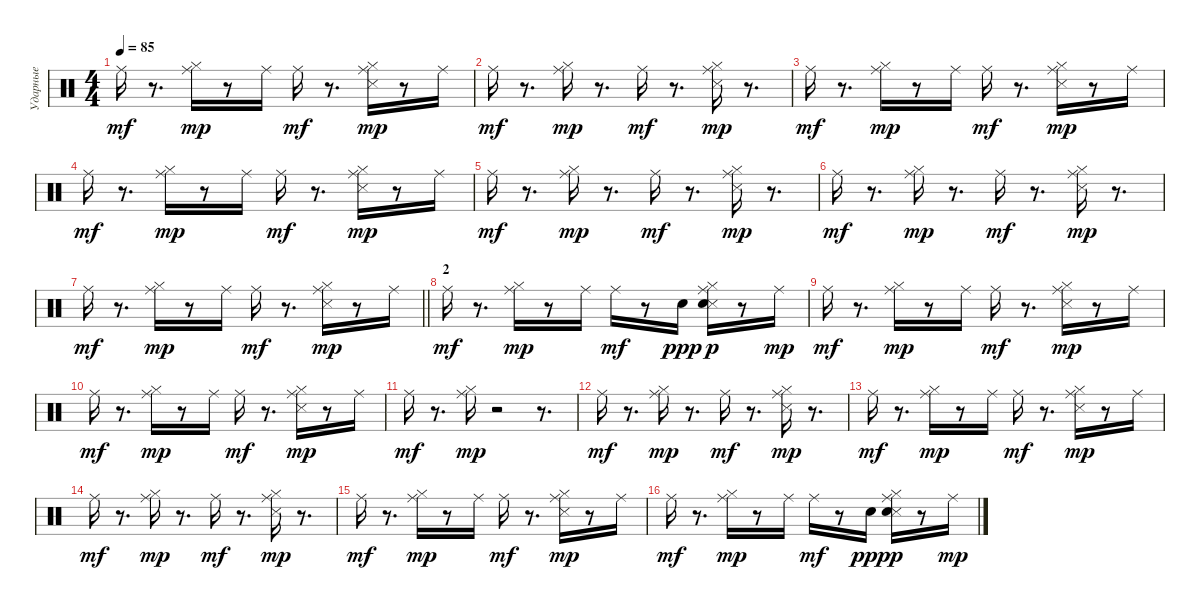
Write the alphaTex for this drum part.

\track ("Ударные" "Ударные") {instrument percussion}
\staff {score}
\articulation defaults
\ts (4 4)
\tempo 85
\clef neutral
\ks c "Ride (middle)".16{dy mf}
r.8{d} ("Ride (middle)" "Hi-Hat (closed)").16{dy mp} r.8 "Ride (middle)".16 "Ride (middle)".16{dy mf} r.8{d} ("Ride (middle)" "Snare (side stick) 3" "Hi-Hat (closed)").16{dy mp} r.8 "Ride (middle)".16 |
"Ride (middle)".16{dy mf} r.8{d} ("Ride (middle)" "Hi-Hat (closed)").16{dy mp} r.8{d} "Ride (middle)".16{dy mf} r.8{d} ("Ride (middle)" "Snare (side stick) 3" "Hi-Hat (closed)").16{dy mp} r.8{d} |
"Ride (middle)".16{dy mf} r.8{d} ("Ride (middle)" "Hi-Hat (closed)").16{dy mp} r.8 "Ride (middle)".16 "Ride (middle)".16{dy mf} r.8{d} ("Ride (middle)" "Snare (side stick) 3" "Hi-Hat (closed)").16{dy mp} r.8 "Ride (middle)".16 |
"Ride (middle)".16{dy mf} r.8{d} ("Ride (middle)" "Hi-Hat (closed)").16{dy mp} r.8 "Ride (middle)".16 "Ride (middle)".16{dy mf} r.8{d} ("Ride (middle)" "Snare (side stick) 3" "Hi-Hat (closed)").16{dy mp} r.8 "Ride (middle)".16 |
"Ride (middle)".16{dy mf} r.8{d} ("Ride (middle)" "Hi-Hat (closed)").16{dy mp} r.8{d} "Ride (middle)".16{dy mf} r.8{d} ("Ride (middle)" "Snare (side stick) 3" "Hi-Hat (closed)").16{dy mp} r.8{d} |
"Ride (middle)".16{dy mf} r.8{d} ("Ride (middle)" "Hi-Hat (closed)").16{dy mp} r.8{d} "Ride (middle)".16{dy mf} r.8{d} ("Ride (middle)" "Snare (side stick) 3" "Hi-Hat (closed)").16{dy mp} r.8{d} |
\barLineRight lightlight "Ride (middle)".16{dy mf}
r.8{d} ("Ride (middle)" "Hi-Hat (closed)").16{dy mp} r.8 "Ride (middle)".16 "Ride (middle)".16{dy mf} r.8{d} ("Ride (middle)" "Snare (side stick) 3" "Hi-Hat (closed)").16{dy mp} r.8 "Ride (middle)".16 |
\section ("" "2")
"Ride (middle)".16{dy mf} r.8{d} ("Ride (middle)" "Hi-Hat (closed)").16{dy mp} r.8 "Ride (middle)".16 "Ride (middle)".16{dy mf} r.8 "Snare (hit) 2".16{dy ppp} ("Ride (middle)" "Snare (side stick) 3" "Hi-Hat (closed)" "Snare (hit) 2").16{dy p} r.8 "Ride (middle)".16{dy mp} |
"Ride (middle)".16{dy mf} r.8{d} ("Ride (middle)" "Hi-Hat (closed)").16{dy mp} r.8 "Ride (middle)".16 "Ride (middle)".16{dy mf} r.8{d} ("Ride (middle)" "Snare (side stick) 3" "Hi-Hat (closed)").16{dy mp} r.8 "Ride (middle)".16 |
"Ride (middle)".16{dy mf} r.8{d} ("Ride (middle)" "Hi-Hat (closed)").16{dy mp} r.8 "Ride (middle)".16 "Ride (middle)".16{dy mf} r.8{d} ("Ride (middle)" "Snare (side stick) 3" "Hi-Hat (closed)").16{dy mp} r.8 "Ride (middle)".16 |
"Ride (middle)".16{dy mf} r.8{d} ("Ride (middle)" "Hi-Hat (closed)").16{dy mp} r.2 r.8{d} |
"Ride (middle)".16{dy mf} r.8{d} ("Ride (middle)" "Hi-Hat (closed)").16{dy mp} r.8{d} "Ride (middle)".16{dy mf} r.8{d} ("Ride (middle)" "Snare (side stick) 3" "Hi-Hat (closed)").16{dy mp} r.8{d} |
"Ride (middle)".16{dy mf} r.8{d} ("Ride (middle)" "Hi-Hat (closed)").16{dy mp} r.8 "Ride (middle)".16 "Ride (middle)".16{dy mf} r.8{d} ("Ride (middle)" "Snare (side stick) 3" "Hi-Hat (closed)").16{dy mp} r.8 "Ride (middle)".16 |
"Ride (middle)".16{dy mf} r.8{d} ("Ride (middle)" "Hi-Hat (closed)").16{dy mp} r.8{d} "Ride (middle)".16{dy mf} r.8{d} ("Ride (middle)" "Snare (side stick) 3" "Hi-Hat (closed)").16{dy mp} r.8{d} |
"Ride (middle)".16{dy mf} r.8{d} ("Ride (middle)" "Hi-Hat (closed)").16{dy mp} r.8 "Ride (middle)".16 "Ride (middle)".16{dy mf} r.8{d} ("Ride (middle)" "Snare (side stick) 3" "Hi-Hat (closed)").16{dy mp} r.8 "Ride (middle)".16 |
"Ride (middle)".16{dy mf} r.8{d} ("Ride (middle)" "Hi-Hat (closed)").16{dy mp} r.8 "Ride (middle)".16 "Ride (middle)".16{dy mf} r.8 "Snare (hit) 2".16{dy ppp} ("Ride (middle)" "Snare (side stick) 3" "Hi-Hat (closed)" "Snare (hit) 2").16{dy p} r.8 "Ride (middle)".16{dy mp}
